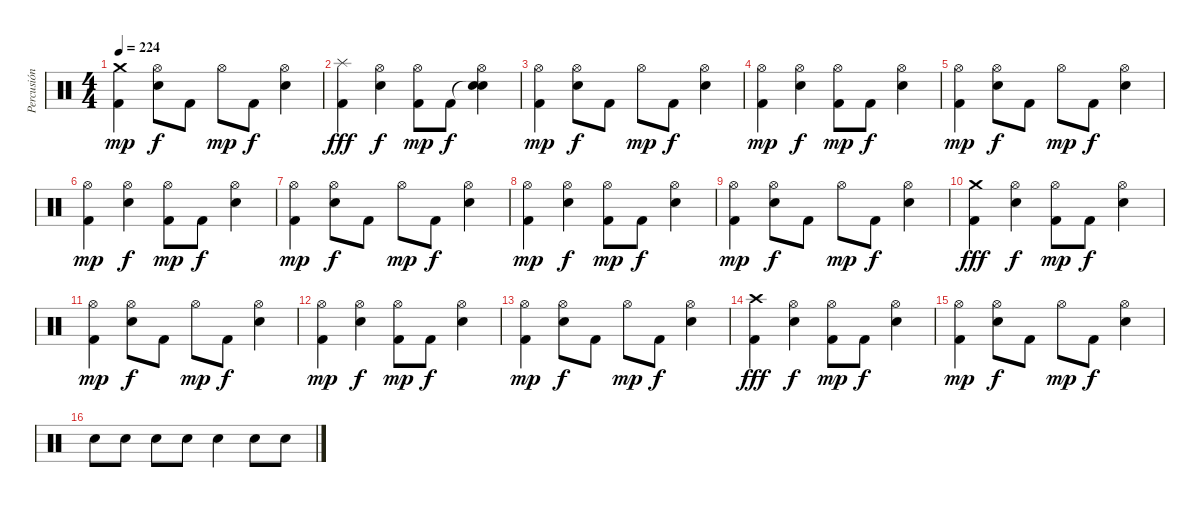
\track ("Percusión" "Percusión") {instrument percussion}
\staff {score}
\articulation defaults
\ts (4 4)
\tempo 224
\clef neutral
\ks c
("Crash medium (hit)" "Kick (hit) 2").4{dy mp} ("Hi-Hat (open)" "Electric Snare (hit)").8{dy f} "Kick (hit) 2".8 "Hi-Hat (open)".8{dy mp} "Kick (hit) 2".8{dy f} ("Hi-Hat (open)" "Electric Snare (hit)").4 |
("Splash (hit)" "Kick (hit) 2").4{dy fff} ("Hi-Hat (open)" "Electric Snare (hit)").4{dy f} ("Hi-Hat (open)" "Kick (hit) 2").8{dy mp} "Kick (hit) 2".8{dy f} ("Snare (hit)"{t} "Hi-Hat (open)" "Electric Snare (hit)").4 |
("Hi-Hat (open)" "Kick (hit) 2").4{dy mp} ("Hi-Hat (open)" "Electric Snare (hit)").8{dy f} "Kick (hit) 2".8 "Hi-Hat (open)".8{dy mp} "Kick (hit) 2".8{dy f} ("Hi-Hat (open)" "Electric Snare (hit)").4 |
("Hi-Hat (open)" "Kick (hit) 2").4{dy mp} ("Hi-Hat (open)" "Electric Snare (hit)").4{dy f} ("Hi-Hat (open)" "Kick (hit) 2").8{dy mp} "Kick (hit) 2".8{dy f} ("Hi-Hat (open)" "Electric Snare (hit)").4 |
("Hi-Hat (open)" "Kick (hit) 2").4{dy mp} ("Hi-Hat (open)" "Electric Snare (hit)").8{dy f} "Kick (hit) 2".8 "Hi-Hat (open)".8{dy mp} "Kick (hit) 2".8{dy f} ("Hi-Hat (open)" "Electric Snare (hit)").4 |
("Hi-Hat (open)" "Kick (hit) 2").4{dy mp} ("Hi-Hat (open)" "Electric Snare (hit)").4{dy f} ("Hi-Hat (open)" "Kick (hit) 2").8{dy mp} "Kick (hit) 2".8{dy f} ("Hi-Hat (open)" "Electric Snare (hit)").4 |
("Hi-Hat (open)" "Kick (hit) 2").4{dy mp} ("Hi-Hat (open)" "Electric Snare (hit)").8{dy f} "Kick (hit) 2".8 "Hi-Hat (open)".8{dy mp} "Kick (hit) 2".8{dy f} ("Hi-Hat (open)" "Electric Snare (hit)").4 |
("Hi-Hat (open)" "Kick (hit) 2").4{dy mp} ("Hi-Hat (open)" "Electric Snare (hit)").4{dy f} ("Hi-Hat (open)" "Kick (hit) 2").8{dy mp} "Kick (hit) 2".8{dy f} ("Hi-Hat (open)" "Electric Snare (hit)").4 |
("Hi-Hat (open)" "Kick (hit) 2").4{dy mp} ("Hi-Hat (open)" "Electric Snare (hit)").8{dy f} "Kick (hit) 2".8 "Hi-Hat (open)".8{dy mp} "Kick (hit) 2".8{dy f} ("Hi-Hat (open)" "Electric Snare (hit)").4 |
("Crash medium (hit)" "Kick (hit) 2").4{dy fff} ("Hi-Hat (open)" "Electric Snare (hit)").4{dy f} ("Hi-Hat (open)" "Kick (hit) 2").8{dy mp} "Kick (hit) 2".8{dy f} ("Hi-Hat (open)" "Electric Snare (hit)").4 |
("Hi-Hat (open)" "Kick (hit) 2").4{dy mp} ("Hi-Hat (open)" "Electric Snare (hit)").8{dy f} "Kick (hit) 2".8 "Hi-Hat (open)".8{dy mp} "Kick (hit) 2".8{dy f} ("Hi-Hat (open)" "Electric Snare (hit)").4 |
("Hi-Hat (open)" "Kick (hit) 2").4{dy mp} ("Hi-Hat (open)" "Electric Snare (hit)").4{dy f} ("Hi-Hat (open)" "Kick (hit) 2").8{dy mp} "Kick (hit) 2".8{dy f} ("Hi-Hat (open)" "Electric Snare (hit)").4 |
("Hi-Hat (open)" "Kick (hit) 2").4{dy mp} ("Hi-Hat (open)" "Electric Snare (hit)").8{dy f} "Kick (hit) 2".8 "Hi-Hat (open)".8{dy mp} "Kick (hit) 2".8{dy f} ("Hi-Hat (open)" "Electric Snare (hit)").4 |
("Crash high (hit)" "Kick (hit) 2").4{dy fff} ("Hi-Hat (open)" "Electric Snare (hit)").4{dy f} ("Hi-Hat (open)" "Kick (hit) 2").8{dy mp} "Kick (hit) 2".8{dy f} ("Hi-Hat (open)" "Electric Snare (hit)").4 |
("Hi-Hat (open)" "Kick (hit) 2").4{dy mp} ("Hi-Hat (open)" "Electric Snare (hit)").8{dy f} "Kick (hit) 2".8 "Hi-Hat (open)".8{dy mp} "Kick (hit) 2".8{dy f} ("Hi-Hat (open)" "Electric Snare (hit)").4 |
"Electric Snare (hit)".8 "Electric Snare (hit)".8 "Electric Snare (hit)".8 "Electric Snare (hit)".8 "Electric Snare (hit)".4 "Electric Snare (hit)".8 "Electric Snare (hit)".8
